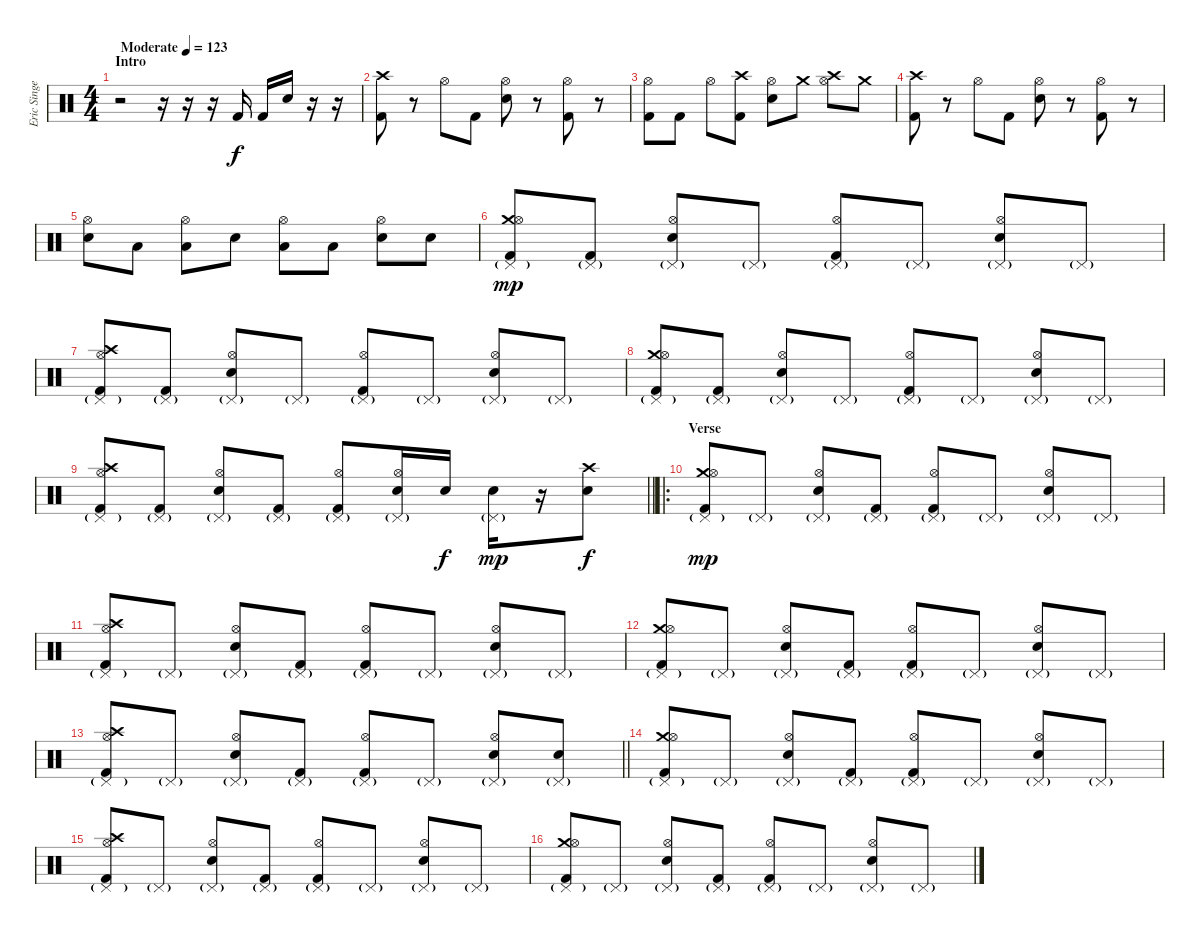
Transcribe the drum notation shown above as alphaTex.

\track ("Eric Singer" "Eric Singe") {instrument percussion}
\staff {score}
\articulation defaults
\ts (4 4)
\section ("" "Intro")
\tempo (123 "Moderate")
\clef neutral
\ks c
r.2{dy f} r.16 r.16 r.16 "Kick (hit) 2".16 "Kick (hit) 2".16 "Snare (hit) 2".16 r.16 r.16 |
("Crash high (hit)" "Kick (hit) 2").8 r.8 "Hi-Hat (open)".8 "Kick (hit) 2".8 ("Hi-Hat (open)" "Snare (hit) 2").8 r.8 ("Hi-Hat (open)" "Kick (hit) 2").8 r.8 |
("Hi-Hat (open)" "Kick (hit) 2").8 "Kick (hit) 2".8 "Hi-Hat (open)".8 ("Crash high (hit)" "Kick (hit) 2").8 ("Hi-Hat (open)" "Snare (hit) 2").8 "Crash medium (hit)".8 ("Crash high (hit)" "Hi-Hat (open)").8 "Crash medium (hit)".8 |
("Crash high (hit)" "Kick (hit) 2").8 r.8 "Hi-Hat (open)".8 "Kick (hit) 2".8 ("Hi-Hat (open)" "Snare (hit) 2").8 r.8 ("Hi-Hat (open)" "Kick (hit) 2").8 r.8 |
("Hi-Hat (open)" "Snare (hit) 2").8 "Low Floor Tom (hit)".8 ("Hi-Hat (open)" "Low Floor Tom (hit)").8 "Snare (hit) 2".8 ("Hi-Hat (open)" "Low Floor Tom (hit)").8 "Low Floor Tom (hit)".8 ("Hi-Hat (open)" "Snare (hit) 2").8 "Snare (hit) 2".8 |
("Crash medium (hit)" "Hi-Hat (open)" "Pedal Hi-Hat (hit)"{g} "Kick (hit) 2").8{dy mp} ("Pedal Hi-Hat (hit)"{g} "Kick (hit) 2").8 ("Hi-Hat (open)" "Pedal Hi-Hat (hit)"{g} "Snare (hit) 2").8 "Pedal Hi-Hat (hit)"{g}.8 ("Hi-Hat (open)" "Pedal Hi-Hat (hit)"{g} "Kick (hit) 2").8 "Pedal Hi-Hat (hit)"{g}.8 ("Hi-Hat (open)" "Pedal Hi-Hat (hit)"{g} "Snare (hit) 2").8 "Pedal Hi-Hat (hit)"{g}.8 |
("Crash high (hit)" "Hi-Hat (open)" "Pedal Hi-Hat (hit)"{g} "Kick (hit) 2").8 ("Pedal Hi-Hat (hit)"{g} "Kick (hit) 2").8 ("Hi-Hat (open)" "Pedal Hi-Hat (hit)"{g} "Snare (hit) 2").8 "Pedal Hi-Hat (hit)"{g}.8 ("Hi-Hat (open)" "Pedal Hi-Hat (hit)"{g} "Kick (hit) 2").8 "Pedal Hi-Hat (hit)"{g}.8 ("Hi-Hat (open)" "Pedal Hi-Hat (hit)"{g} "Snare (hit) 2").8 "Pedal Hi-Hat (hit)"{g}.8 |
("Crash medium (hit)" "Hi-Hat (open)" "Pedal Hi-Hat (hit)"{g} "Kick (hit) 2").8 ("Pedal Hi-Hat (hit)"{g} "Kick (hit) 2").8 ("Hi-Hat (open)" "Pedal Hi-Hat (hit)"{g} "Snare (hit) 2").8 "Pedal Hi-Hat (hit)"{g}.8 ("Hi-Hat (open)" "Pedal Hi-Hat (hit)"{g} "Kick (hit) 2").8 "Pedal Hi-Hat (hit)"{g}.8 ("Hi-Hat (open)" "Pedal Hi-Hat (hit)"{g} "Snare (hit) 2").8 "Pedal Hi-Hat (hit)"{g}.8 |
\barLineRight lightlight
("Crash high (hit)" "Hi-Hat (open)" "Pedal Hi-Hat (hit)"{g} "Kick (hit) 2").8 ("Pedal Hi-Hat (hit)"{g} "Kick (hit) 2").8 ("Hi-Hat (open)" "Pedal Hi-Hat (hit)"{g} "Snare (hit) 2").8 ("Pedal Hi-Hat (hit)"{g} "Kick (hit) 2").8 ("Hi-Hat (open)" "Pedal Hi-Hat (hit)"{g} "Kick (hit) 2").8 ("Hi-Hat (open)" "Pedal Hi-Hat (hit)"{g} "Snare (hit) 2").16 "Snare (hit) 2".16{dy f} ("Pedal Hi-Hat (hit)"{g} "Snare (hit) 2").16{dy mp} r.16 ("Crash high (hit)" "Snare (hit) 2").8{dy f} |
\ro
\section ("" "Verse")
("Crash medium (hit)" "Hi-Hat (open)" "Pedal Hi-Hat (hit)"{g} "Kick (hit) 2").8{dy mp} "Pedal Hi-Hat (hit)"{g}.8 ("Hi-Hat (open)" "Pedal Hi-Hat (hit)"{g} "Snare (hit) 2").8 ("Pedal Hi-Hat (hit)"{g} "Kick (hit) 2").8 ("Hi-Hat (open)" "Pedal Hi-Hat (hit)"{g} "Kick (hit) 2").8 "Pedal Hi-Hat (hit)"{g}.8 ("Hi-Hat (open)" "Pedal Hi-Hat (hit)"{g} "Snare (hit) 2").8 "Pedal Hi-Hat (hit)"{g}.8 |
("Crash high (hit)" "Hi-Hat (open)" "Pedal Hi-Hat (hit)"{g} "Kick (hit) 2").8 "Pedal Hi-Hat (hit)"{g}.8 ("Hi-Hat (open)" "Pedal Hi-Hat (hit)"{g} "Snare (hit) 2").8 ("Pedal Hi-Hat (hit)"{g} "Kick (hit) 2").8 ("Hi-Hat (open)" "Pedal Hi-Hat (hit)"{g} "Kick (hit) 2").8 "Pedal Hi-Hat (hit)"{g}.8 ("Hi-Hat (open)" "Pedal Hi-Hat (hit)"{g} "Snare (hit) 2").8 "Pedal Hi-Hat (hit)"{g}.8 |
("Crash medium (hit)" "Hi-Hat (open)" "Pedal Hi-Hat (hit)"{g} "Kick (hit) 2").8 "Pedal Hi-Hat (hit)"{g}.8 ("Hi-Hat (open)" "Pedal Hi-Hat (hit)"{g} "Snare (hit) 2").8 ("Pedal Hi-Hat (hit)"{g} "Kick (hit) 2").8 ("Hi-Hat (open)" "Pedal Hi-Hat (hit)"{g} "Kick (hit) 2").8 "Pedal Hi-Hat (hit)"{g}.8 ("Hi-Hat (open)" "Pedal Hi-Hat (hit)"{g} "Snare (hit) 2").8 "Pedal Hi-Hat (hit)"{g}.8 |
\barLineRight lightlight
("Crash high (hit)" "Hi-Hat (open)" "Pedal Hi-Hat (hit)"{g} "Kick (hit) 2").8 "Pedal Hi-Hat (hit)"{g}.8 ("Hi-Hat (open)" "Pedal Hi-Hat (hit)"{g} "Snare (hit) 2").8 ("Pedal Hi-Hat (hit)"{g} "Kick (hit) 2").8 ("Hi-Hat (open)" "Pedal Hi-Hat (hit)"{g} "Kick (hit) 2").8 "Pedal Hi-Hat (hit)"{g}.8 ("Hi-Hat (open)" "Pedal Hi-Hat (hit)"{g} "Snare (hit) 2").8 ("Pedal Hi-Hat (hit)"{g} "Snare (hit) 2").8 |
\section ("" "")
("Crash medium (hit)" "Hi-Hat (open)" "Pedal Hi-Hat (hit)"{g} "Kick (hit) 2").8 "Pedal Hi-Hat (hit)"{g}.8 ("Hi-Hat (open)" "Pedal Hi-Hat (hit)"{g} "Snare (hit) 2").8 ("Pedal Hi-Hat (hit)"{g} "Kick (hit) 2").8 ("Hi-Hat (open)" "Pedal Hi-Hat (hit)"{g} "Kick (hit) 2").8 "Pedal Hi-Hat (hit)"{g}.8 ("Hi-Hat (open)" "Pedal Hi-Hat (hit)"{g} "Snare (hit) 2").8 "Pedal Hi-Hat (hit)"{g}.8 |
("Crash high (hit)" "Hi-Hat (open)" "Pedal Hi-Hat (hit)"{g} "Kick (hit) 2").8 "Pedal Hi-Hat (hit)"{g}.8 ("Hi-Hat (open)" "Pedal Hi-Hat (hit)"{g} "Snare (hit) 2").8 ("Pedal Hi-Hat (hit)"{g} "Kick (hit) 2").8 ("Hi-Hat (open)" "Pedal Hi-Hat (hit)"{g} "Kick (hit) 2").8 "Pedal Hi-Hat (hit)"{g}.8 ("Hi-Hat (open)" "Pedal Hi-Hat (hit)"{g} "Snare (hit) 2").8 "Pedal Hi-Hat (hit)"{g}.8 |
("Crash medium (hit)" "Hi-Hat (open)" "Pedal Hi-Hat (hit)"{g} "Kick (hit) 2").8 "Pedal Hi-Hat (hit)"{g}.8 ("Hi-Hat (open)" "Pedal Hi-Hat (hit)"{g} "Snare (hit) 2").8 ("Pedal Hi-Hat (hit)"{g} "Kick (hit) 2").8 ("Hi-Hat (open)" "Pedal Hi-Hat (hit)"{g} "Kick (hit) 2").8 "Pedal Hi-Hat (hit)"{g}.8 ("Hi-Hat (open)" "Pedal Hi-Hat (hit)"{g} "Snare (hit) 2").8 "Pedal Hi-Hat (hit)"{g}.8
